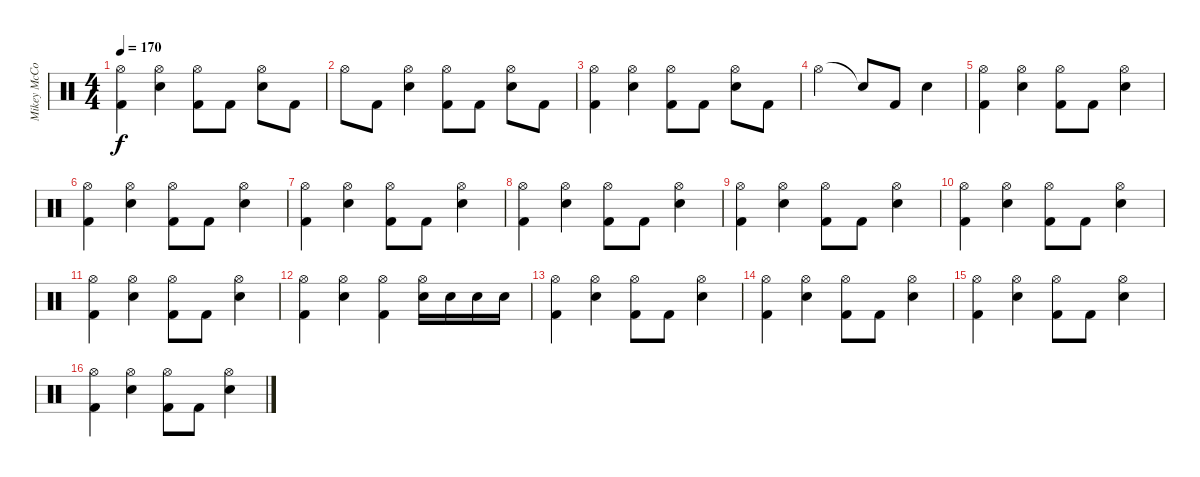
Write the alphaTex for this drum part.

\track ("Mikey McCormack" "Mikey McCo") {instrument percussion}
\staff {score}
\articulation defaults
\ts (4 4)
\tempo 170
\clef neutral
\ks c
("Hi-Hat (open)" "Kick (hit) 2").4{dy f} ("Hi-Hat (open)" "Electric Snare (hit)").4 ("Hi-Hat (open)" "Kick (hit) 2").8 "Kick (hit) 2".8 ("Hi-Hat (open)" "Electric Snare (hit)").8 "Kick (hit) 2".8 |
"Hi-Hat (open)".8 "Kick (hit) 2".8 ("Hi-Hat (open)" "Electric Snare (hit)").4 ("Hi-Hat (open)" "Kick (hit) 2").8 "Kick (hit) 2".8 ("Hi-Hat (open)" "Electric Snare (hit)").8 "Kick (hit) 2".8 |
("Hi-Hat (open)" "Kick (hit) 2").4 ("Hi-Hat (open)" "Electric Snare (hit)").4 ("Hi-Hat (open)" "Kick (hit) 2").8 "Kick (hit) 2".8 ("Hi-Hat (open)" "Electric Snare (hit)").8 "Kick (hit) 2".8 |
"Hi-Hat (open)".2 "Snare (hit)"{t}.8 "Kick (hit) 2".8 "Electric Snare (hit)".4 |
("Hi-Hat (open)" "Kick (hit) 2").4 ("Hi-Hat (open)" "Electric Snare (hit)").4 ("Hi-Hat (open)" "Kick (hit) 2").8 "Kick (hit) 2".8 ("Hi-Hat (open)" "Electric Snare (hit)").4 |
("Hi-Hat (open)" "Kick (hit) 2").4 ("Hi-Hat (open)" "Electric Snare (hit)").4 ("Hi-Hat (open)" "Kick (hit) 2").8 "Kick (hit) 2".8 ("Hi-Hat (open)" "Electric Snare (hit)").4 |
("Hi-Hat (open)" "Kick (hit) 2").4 ("Hi-Hat (open)" "Electric Snare (hit)").4 ("Hi-Hat (open)" "Kick (hit) 2").8 "Kick (hit) 2".8 ("Hi-Hat (open)" "Electric Snare (hit)").4 |
("Hi-Hat (open)" "Kick (hit) 2").4 ("Hi-Hat (open)" "Electric Snare (hit)").4 ("Hi-Hat (open)" "Kick (hit) 2").8 "Kick (hit) 2".8 ("Hi-Hat (open)" "Electric Snare (hit)").4 |
("Hi-Hat (open)" "Kick (hit) 2").4 ("Hi-Hat (open)" "Electric Snare (hit)").4 ("Hi-Hat (open)" "Kick (hit) 2").8 "Kick (hit) 2".8 ("Hi-Hat (open)" "Electric Snare (hit)").4 |
("Hi-Hat (open)" "Kick (hit) 2").4 ("Hi-Hat (open)" "Electric Snare (hit)").4 ("Hi-Hat (open)" "Kick (hit) 2").8 "Kick (hit) 2".8 ("Hi-Hat (open)" "Electric Snare (hit)").4 |
("Hi-Hat (open)" "Kick (hit) 2").4 ("Hi-Hat (open)" "Electric Snare (hit)").4 ("Hi-Hat (open)" "Kick (hit) 2").8 "Kick (hit) 2".8 ("Hi-Hat (open)" "Electric Snare (hit)").4 |
("Hi-Hat (open)" "Kick (hit) 2").4 ("Hi-Hat (open)" "Electric Snare (hit)").4 ("Hi-Hat (open)" "Kick (hit) 2").4 ("Hi-Hat (open)" "Electric Snare (hit)").16 "Electric Snare (hit)".16 "Electric Snare (hit)".16 "Electric Snare (hit)".16 |
("Hi-Hat (open)" "Kick (hit) 2").4 ("Hi-Hat (open)" "Electric Snare (hit)").4 ("Hi-Hat (open)" "Kick (hit) 2").8 "Kick (hit) 2".8 ("Hi-Hat (open)" "Electric Snare (hit)").4 |
("Hi-Hat (open)" "Kick (hit) 2").4 ("Hi-Hat (open)" "Electric Snare (hit)").4 ("Hi-Hat (open)" "Kick (hit) 2").8 "Kick (hit) 2".8 ("Hi-Hat (open)" "Electric Snare (hit)").4 |
("Hi-Hat (open)" "Kick (hit) 2").4 ("Hi-Hat (open)" "Electric Snare (hit)").4 ("Hi-Hat (open)" "Kick (hit) 2").8 "Kick (hit) 2".8 ("Hi-Hat (open)" "Electric Snare (hit)").4 |
("Hi-Hat (open)" "Kick (hit) 2").4 ("Hi-Hat (open)" "Electric Snare (hit)").4 ("Hi-Hat (open)" "Kick (hit) 2").8 "Kick (hit) 2".8 ("Hi-Hat (open)" "Electric Snare (hit)").4
